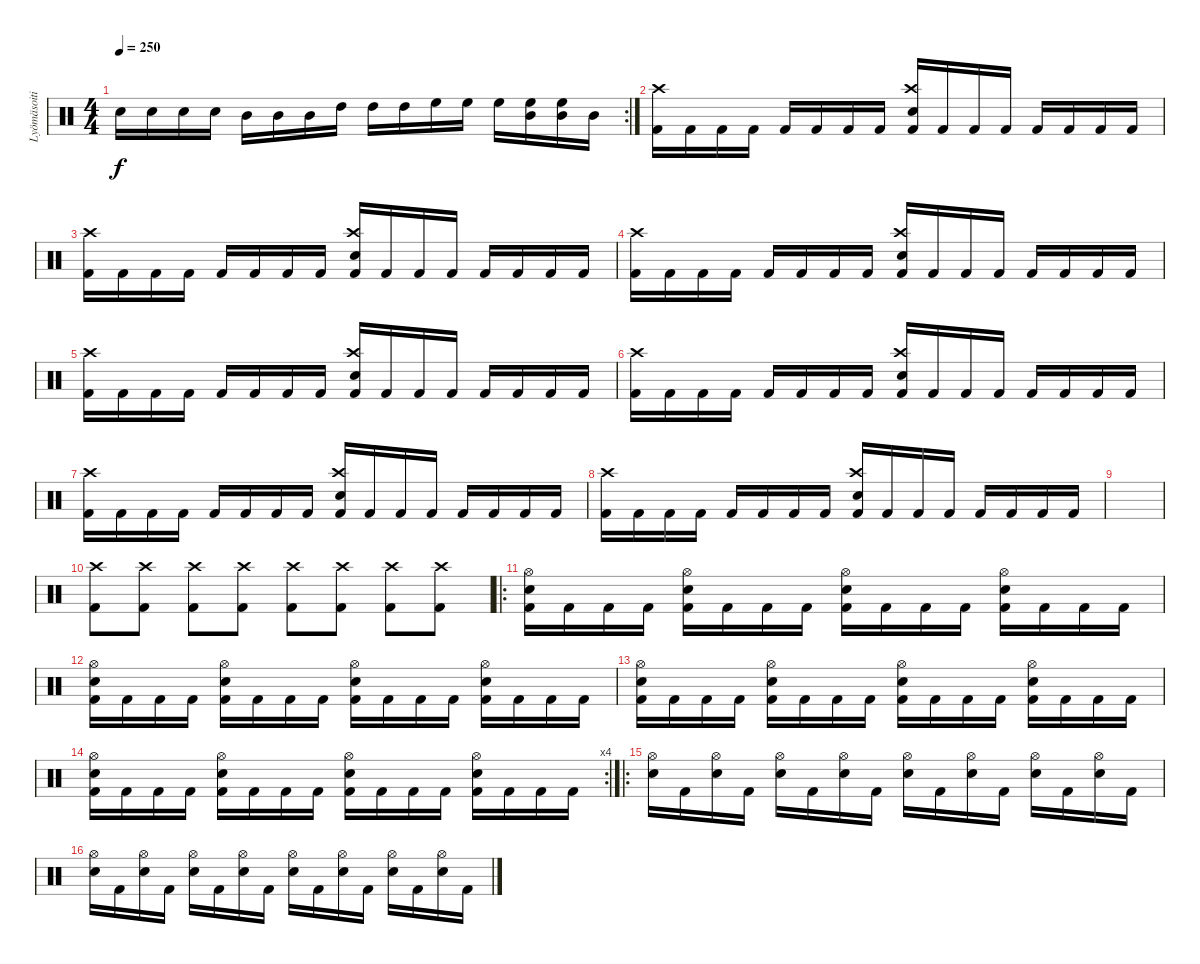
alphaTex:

\track ("Lyömäsoitin" "Lyömäsoiti") {instrument percussion}
\staff {score}
\articulation defaults
\rc 2
\ts (4 4)
\tempo 250
\clef neutral
\ks c "Electric Snare (hit)".16{dy f} "Electric Snare (hit)".16 "Electric Snare (hit)".16 "Electric Snare (hit)".16 "Mid Tom (hit)".16 "Mid Tom (hit)".16 "Mid Tom (hit)".16 "High Tom (hit)".16 "High Tom (hit)".16 "High Tom (hit)".16 "High Floor Tom (hit)".16 "High Floor Tom (hit)".16 "High Floor Tom (hit)".16
("Mid Tom (hit)" "High Floor Tom (hit)").16 ("Mid Tom (hit)" "High Floor Tom (hit)").16 "Mid Tom (hit)".16 |
("Crash high (hit)" "Kick (hit) 2").16 "Kick (hit) 2".16 "Kick (hit) 2".16 "Kick (hit) 2".16 "Kick (hit) 2".16 "Kick (hit) 2".16 "Kick (hit) 2".16 "Kick (hit) 2".16 ("Crash high (hit)" "Electric Snare (hit)" "Kick (hit) 2").16 "Kick (hit) 2".16 "Kick (hit) 2".16 "Kick (hit) 2".16 "Kick (hit) 2".16 "Kick (hit) 2".16 "Kick (hit) 2".16 "Kick (hit) 2".16 |
("Crash high (hit)" "Kick (hit) 2").16 "Kick (hit) 2".16 "Kick (hit) 2".16 "Kick (hit) 2".16 "Kick (hit) 2".16 "Kick (hit) 2".16 "Kick (hit) 2".16 "Kick (hit) 2".16 ("Crash high (hit)" "Electric Snare (hit)" "Kick (hit) 2").16 "Kick (hit) 2".16 "Kick (hit) 2".16 "Kick (hit) 2".16 "Kick (hit) 2".16 "Kick (hit) 2".16 "Kick (hit) 2".16 "Kick (hit) 2".16 |
("Crash high (hit)" "Kick (hit) 2").16 "Kick (hit) 2".16 "Kick (hit) 2".16 "Kick (hit) 2".16 "Kick (hit) 2".16 "Kick (hit) 2".16 "Kick (hit) 2".16 "Kick (hit) 2".16 ("Crash high (hit)" "Electric Snare (hit)" "Kick (hit) 2").16 "Kick (hit) 2".16 "Kick (hit) 2".16 "Kick (hit) 2".16 "Kick (hit) 2".16 "Kick (hit) 2".16 "Kick (hit) 2".16 "Kick (hit) 2".16 |
("Crash high (hit)" "Kick (hit) 2").16 "Kick (hit) 2".16 "Kick (hit) 2".16 "Kick (hit) 2".16 "Kick (hit) 2".16 "Kick (hit) 2".16 "Kick (hit) 2".16 "Kick (hit) 2".16 ("Crash high (hit)" "Electric Snare (hit)" "Kick (hit) 2").16 "Kick (hit) 2".16 "Kick (hit) 2".16 "Kick (hit) 2".16 "Kick (hit) 2".16 "Kick (hit) 2".16 "Kick (hit) 2".16 "Kick (hit) 2".16 |
("Crash high (hit)" "Kick (hit) 2").16 "Kick (hit) 2".16 "Kick (hit) 2".16 "Kick (hit) 2".16 "Kick (hit) 2".16 "Kick (hit) 2".16 "Kick (hit) 2".16 "Kick (hit) 2".16 ("Crash high (hit)" "Electric Snare (hit)" "Kick (hit) 2").16 "Kick (hit) 2".16 "Kick (hit) 2".16 "Kick (hit) 2".16 "Kick (hit) 2".16 "Kick (hit) 2".16 "Kick (hit) 2".16 "Kick (hit) 2".16 |
("Crash high (hit)" "Kick (hit) 2").16 "Kick (hit) 2".16 "Kick (hit) 2".16 "Kick (hit) 2".16 "Kick (hit) 2".16 "Kick (hit) 2".16 "Kick (hit) 2".16 "Kick (hit) 2".16 ("Crash high (hit)" "Electric Snare (hit)" "Kick (hit) 2").16 "Kick (hit) 2".16 "Kick (hit) 2".16 "Kick (hit) 2".16 "Kick (hit) 2".16 "Kick (hit) 2".16 "Kick (hit) 2".16 "Kick (hit) 2".16 |
("Crash high (hit)" "Kick (hit) 2").16 "Kick (hit) 2".16 "Kick (hit) 2".16 "Kick (hit) 2".16 "Kick (hit) 2".16 "Kick (hit) 2".16 "Kick (hit) 2".16 "Kick (hit) 2".16 ("Crash high (hit)" "Electric Snare (hit)" "Kick (hit) 2").16 "Kick (hit) 2".16 "Kick (hit) 2".16 "Kick (hit) 2".16 "Kick (hit) 2".16 "Kick (hit) 2".16 "Kick (hit) 2".16 "Kick (hit) 2".16 |
|
("Crash high (hit)" "Kick (hit) 2").8 ("Crash high (hit)" "Kick (hit) 2").8 ("Crash high (hit)" "Kick (hit) 2").8 ("Crash high (hit)" "Kick (hit) 2").8 ("Crash high (hit)" "Kick (hit) 2").8 ("Crash high (hit)" "Kick (hit) 2").8 ("Crash high (hit)" "Kick (hit) 2").8 ("Crash high (hit)" "Kick (hit) 2").8 |
\ro
("Hi-Hat (open)" "Electric Snare (hit)" "Kick (hit) 2").16 "Kick (hit) 2".16 "Kick (hit) 2".16 "Kick (hit) 2".16 ("Hi-Hat (open)" "Electric Snare (hit)" "Kick (hit) 2").16 "Kick (hit) 2".16 "Kick (hit) 2".16 "Kick (hit) 2".16 ("Hi-Hat (open)" "Electric Snare (hit)" "Kick (hit) 2").16 "Kick (hit) 2".16 "Kick (hit) 2".16 "Kick (hit) 2".16 ("Hi-Hat (open)" "Electric Snare (hit)" "Kick (hit) 2").16 "Kick (hit) 2".16 "Kick (hit) 2".16 "Kick (hit) 2".16 |
("Hi-Hat (open)" "Electric Snare (hit)" "Kick (hit) 2").16 "Kick (hit) 2".16 "Kick (hit) 2".16 "Kick (hit) 2".16 ("Hi-Hat (open)" "Electric Snare (hit)" "Kick (hit) 2").16 "Kick (hit) 2".16 "Kick (hit) 2".16 "Kick (hit) 2".16 ("Hi-Hat (open)" "Electric Snare (hit)" "Kick (hit) 2").16 "Kick (hit) 2".16 "Kick (hit) 2".16 "Kick (hit) 2".16 ("Hi-Hat (open)" "Electric Snare (hit)" "Kick (hit) 2").16 "Kick (hit) 2".16 "Kick (hit) 2".16 "Kick (hit) 2".16 |
("Hi-Hat (open)" "Electric Snare (hit)" "Kick (hit) 2").16 "Kick (hit) 2".16 "Kick (hit) 2".16 "Kick (hit) 2".16 ("Hi-Hat (open)" "Electric Snare (hit)" "Kick (hit) 2").16 "Kick (hit) 2".16 "Kick (hit) 2".16 "Kick (hit) 2".16 ("Hi-Hat (open)" "Electric Snare (hit)" "Kick (hit) 2").16 "Kick (hit) 2".16 "Kick (hit) 2".16 "Kick (hit) 2".16 ("Hi-Hat (open)" "Electric Snare (hit)" "Kick (hit) 2").16 "Kick (hit) 2".16 "Kick (hit) 2".16 "Kick (hit) 2".16 |
\rc 4
("Hi-Hat (open)" "Electric Snare (hit)" "Kick (hit) 2").16 "Kick (hit) 2".16 "Kick (hit) 2".16 "Kick (hit) 2".16 ("Hi-Hat (open)" "Electric Snare (hit)" "Kick (hit) 2").16 "Kick (hit) 2".16 "Kick (hit) 2".16 "Kick (hit) 2".16 ("Hi-Hat (open)" "Electric Snare (hit)" "Kick (hit) 2").16 "Kick (hit) 2".16 "Kick (hit) 2".16 "Kick (hit) 2".16 ("Hi-Hat (open)" "Electric Snare (hit)" "Kick (hit) 2").16 "Kick (hit) 2".16 "Kick (hit) 2".16 "Kick (hit) 2".16 |
\ro
("Hi-Hat (open)" "Electric Snare (hit)").16 "Kick (hit) 2".16 ("Hi-Hat (open)" "Electric Snare (hit)").16 "Kick (hit) 2".16 ("Hi-Hat (open)" "Electric Snare (hit)").16 "Kick (hit) 2".16 ("Hi-Hat (open)" "Electric Snare (hit)").16 "Kick (hit) 2".16 ("Hi-Hat (open)" "Electric Snare (hit)").16 "Kick (hit) 2".16 ("Hi-Hat (open)" "Electric Snare (hit)").16 "Kick (hit) 2".16 ("Hi-Hat (open)" "Electric Snare (hit)").16 "Kick (hit) 2".16 ("Hi-Hat (open)" "Electric Snare (hit)").16 "Kick (hit) 2".16 |
("Hi-Hat (open)" "Electric Snare (hit)").16 "Kick (hit) 2".16 ("Hi-Hat (open)" "Electric Snare (hit)").16 "Kick (hit) 2".16 ("Hi-Hat (open)" "Electric Snare (hit)").16 "Kick (hit) 2".16 ("Hi-Hat (open)" "Electric Snare (hit)").16 "Kick (hit) 2".16 ("Hi-Hat (open)" "Electric Snare (hit)").16 "Kick (hit) 2".16 ("Hi-Hat (open)" "Electric Snare (hit)").16 "Kick (hit) 2".16 ("Hi-Hat (open)" "Electric Snare (hit)").16 "Kick (hit) 2".16 ("Hi-Hat (open)" "Electric Snare (hit)").16 "Kick (hit) 2".16
